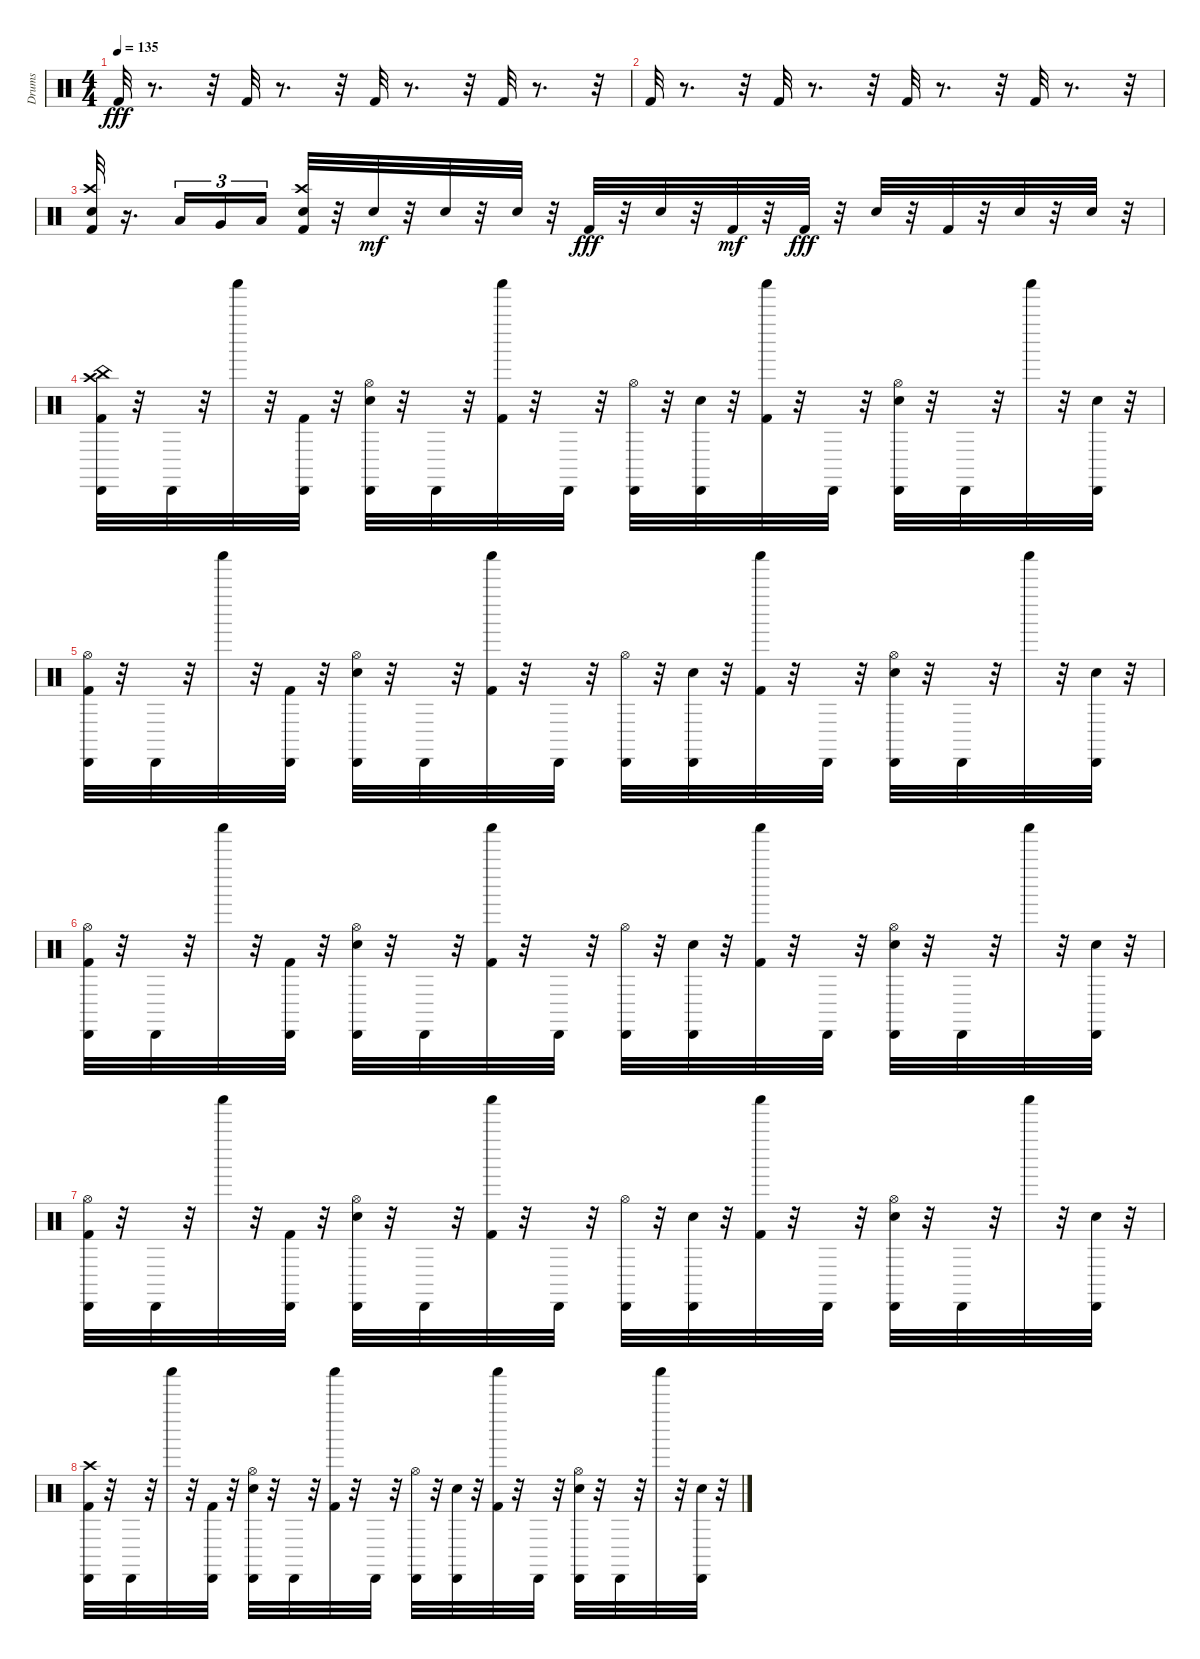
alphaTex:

\track ("Drums" "Drums") {instrument percussion}
\staff {score}
\articulation defaults
\ts (4 4)
\tempo 135
\clef neutral
\ks c "Kick (hit) 2".32{dy fff}
r.8{d} r.32 "Kick (hit) 2".32 r.8{d} r.32 "Kick (hit) 2".32 r.8{d} r.32 "Kick (hit) 2".32 r.8{d} r.32 |
"Kick (hit) 2".32 r.8{d} r.32 "Kick (hit) 2".32 r.8{d} r.32 "Kick (hit) 2".32 r.8{d} r.32 "Kick (hit) 2".32 r.8{d} r.32 |
("Crash high (hit)" "Snare (hit) 2" "Kick (hit) 2").32 r.16{d} "Low Tom (hit)".16{tu (3 2)} "Very Low Tom (hit)".16{tu (3 2)} "Low Floor Tom (hit)".16{tu (3 2)} ("Snare (hit) 2" "Kick (hit) 2" "Crash high (hit)").32 r.32 "Snare (hit) 2".32{dy mf} r.32 "Snare (hit) 2".32 r.32 "Snare (hit) 2".32 r.32 "Kick (hit) 2".32{dy fff} r.32 "Snare (hit) 2".32 r.32 "Kick (hit) 2".32{dy mf} r.32 "Kick (hit) 2".32{dy fff} r.32 "Snare (hit) 2".32 r.32 "Kick (hit) 2".32 r.32 "Snare (hit) 2".32 r.32 "Snare (hit) 2".32 r.32 |
("Crash high (hit)" "Kick (hit) 2" "China (hit)" "Cabasa (hit)").32 r.32 "Cabasa (hit)".32 r.32 "Shaker (hit)".32 r.32 ("Kick (hit) 2" "Cabasa (hit)").32 r.32 ("Snare (hit) 2" "Hi-Hat (open)" "Cabasa (hit)").32 r.32 "Cabasa (hit)".32 r.32 ("Kick (hit) 2" "Shaker (hit)").32 r.32 "Cabasa (hit)".32 r.32 ("Hi-Hat (open)" "Cabasa (hit)").32 r.32 ("Snare (hit) 2" "Cabasa (hit)").32 r.32 ("Kick (hit) 2" "Shaker (hit)").32 r.32 "Cabasa (hit)".32 r.32 ("Snare (hit) 2" "Hi-Hat (open)" "Cabasa (hit)").32 r.32 "Cabasa (hit)".32 r.32 "Shaker (hit)".32 r.32 ("Snare (hit) 2" "Cabasa (hit)").32 r.32 |
("Hi-Hat (open)" "Kick (hit) 2" "Cabasa (hit)").32 r.32 "Cabasa (hit)".32 r.32 "Shaker (hit)".32 r.32 ("Kick (hit) 2" "Cabasa (hit)").32 r.32 ("Snare (hit) 2" "Hi-Hat (open)" "Cabasa (hit)").32 r.32 "Cabasa (hit)".32 r.32 ("Kick (hit) 2" "Shaker (hit)").32 r.32 "Cabasa (hit)".32 r.32 ("Hi-Hat (open)" "Cabasa (hit)").32 r.32 ("Snare (hit) 2" "Cabasa (hit)").32 r.32 ("Kick (hit) 2" "Shaker (hit)").32 r.32 "Cabasa (hit)".32 r.32 ("Snare (hit) 2" "Hi-Hat (open)" "Cabasa (hit)").32 r.32 "Cabasa (hit)".32 r.32 "Shaker (hit)".32 r.32 ("Snare (hit) 2" "Cabasa (hit)").32 r.32 |
("Hi-Hat (open)" "Kick (hit) 2" "Cabasa (hit)").32 r.32 "Cabasa (hit)".32 r.32 "Shaker (hit)".32 r.32 ("Kick (hit) 2" "Cabasa (hit)").32 r.32 ("Snare (hit) 2" "Hi-Hat (open)" "Cabasa (hit)").32 r.32 "Cabasa (hit)".32 r.32 ("Kick (hit) 2" "Shaker (hit)").32 r.32 "Cabasa (hit)".32 r.32 ("Hi-Hat (open)" "Cabasa (hit)").32 r.32 ("Snare (hit) 2" "Cabasa (hit)").32 r.32 ("Kick (hit) 2" "Shaker (hit)").32 r.32 "Cabasa (hit)".32 r.32 ("Snare (hit) 2" "Hi-Hat (open)" "Cabasa (hit)").32 r.32 "Cabasa (hit)".32 r.32 "Shaker (hit)".32 r.32 ("Snare (hit) 2" "Cabasa (hit)").32 r.32 |
("Hi-Hat (open)" "Kick (hit) 2" "Cabasa (hit)").32 r.32 "Cabasa (hit)".32 r.32 "Shaker (hit)".32 r.32 ("Kick (hit) 2" "Cabasa (hit)").32 r.32 ("Snare (hit) 2" "Hi-Hat (open)" "Cabasa (hit)").32 r.32 "Cabasa (hit)".32 r.32 ("Kick (hit) 2" "Shaker (hit)").32 r.32 "Cabasa (hit)".32 r.32 ("Hi-Hat (open)" "Cabasa (hit)").32 r.32 ("Snare (hit) 2" "Cabasa (hit)").32 r.32 ("Kick (hit) 2" "Shaker (hit)").32 r.32 "Cabasa (hit)".32 r.32 ("Snare (hit) 2" "Hi-Hat (open)" "Cabasa (hit)").32 r.32 "Cabasa (hit)".32 r.32 "Shaker (hit)".32 r.32 ("Snare (hit) 2" "Cabasa (hit)").32 r.32 |
("Crash high (hit)" "Kick (hit) 2" "Cabasa (hit)").32 r.32 "Cabasa (hit)".32 r.32 "Shaker (hit)".32 r.32 ("Kick (hit) 2" "Cabasa (hit)").32 r.32 ("Snare (hit) 2" "Hi-Hat (open)" "Cabasa (hit)").32 r.32 "Cabasa (hit)".32 r.32 ("Kick (hit) 2" "Shaker (hit)").32 r.32 "Cabasa (hit)".32 r.32 ("Hi-Hat (open)" "Cabasa (hit)").32 r.32 ("Snare (hit) 2" "Cabasa (hit)").32 r.32 ("Kick (hit) 2" "Shaker (hit)").32 r.32 "Cabasa (hit)".32 r.32 ("Snare (hit) 2" "Hi-Hat (open)" "Cabasa (hit)").32 r.32 "Cabasa (hit)".32 r.32 "Shaker (hit)".32 r.32 ("Snare (hit) 2" "Cabasa (hit)").32 r.32
